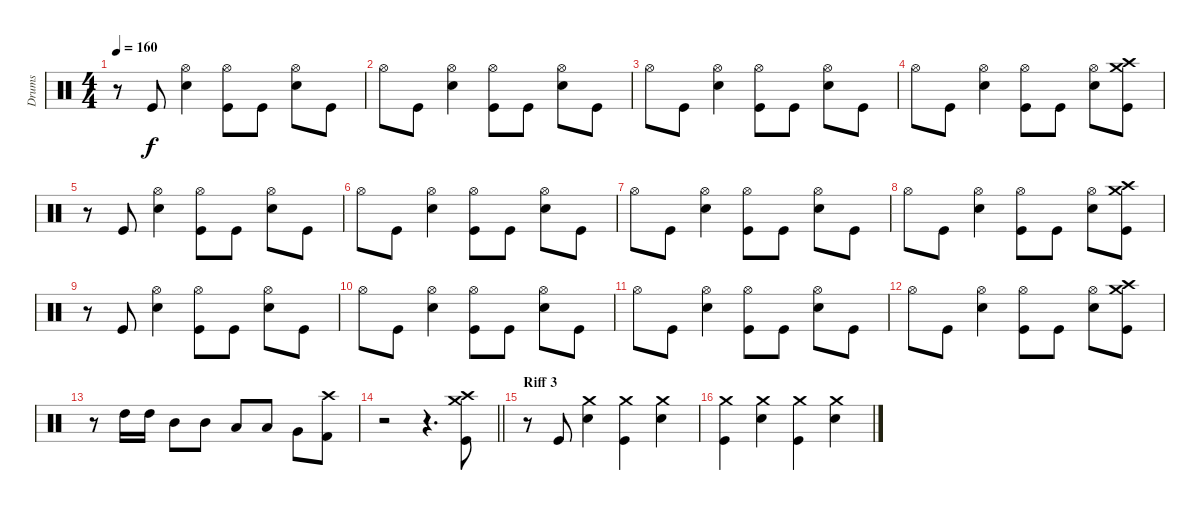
\track ("Drums" "Drums") {instrument percussion}
\staff {score}
\articulation defaults
\ts (4 4)
\tempo 160
\clef neutral
\ks c
r.8{dy f} "Kick (hit)".8 ("Hi-Hat (open)" "Electric Snare (hit)").4 ("Kick (hit)" "Hi-Hat (open)").8 "Kick (hit)".8 ("Hi-Hat (open)" "Electric Snare (hit)").8 "Kick (hit)".8 |
"Hi-Hat (open)".8 "Kick (hit)".8 ("Hi-Hat (open)" "Electric Snare (hit)").4 ("Kick (hit)" "Hi-Hat (open)").8 "Kick (hit)".8 ("Hi-Hat (open)" "Electric Snare (hit)").8 "Kick (hit)".8 |
"Hi-Hat (open)".8 "Kick (hit)".8 ("Hi-Hat (open)" "Electric Snare (hit)").4 ("Kick (hit)" "Hi-Hat (open)").8 "Kick (hit)".8 ("Hi-Hat (open)" "Electric Snare (hit)").8 "Kick (hit)".8 |
"Hi-Hat (open)".8 "Kick (hit)".8 ("Hi-Hat (open)" "Electric Snare (hit)").4 ("Kick (hit)" "Hi-Hat (open)").8 "Kick (hit)".8 ("Hi-Hat (open)" "Electric Snare (hit)").8 ("Kick (hit)" "Crash medium (hit)" "Crash high (hit)").8 |
r.8 "Kick (hit)".8 ("Hi-Hat (open)" "Electric Snare (hit)").4 ("Kick (hit)" "Hi-Hat (open)").8 "Kick (hit)".8 ("Hi-Hat (open)" "Electric Snare (hit)").8 "Kick (hit)".8 |
"Hi-Hat (open)".8 "Kick (hit)".8 ("Hi-Hat (open)" "Electric Snare (hit)").4 ("Kick (hit)" "Hi-Hat (open)").8 "Kick (hit)".8 ("Hi-Hat (open)" "Electric Snare (hit)").8 "Kick (hit)".8 |
"Hi-Hat (open)".8 "Kick (hit)".8 ("Hi-Hat (open)" "Electric Snare (hit)").4 ("Kick (hit)" "Hi-Hat (open)").8 "Kick (hit)".8 ("Hi-Hat (open)" "Electric Snare (hit)").8 "Kick (hit)".8 |
"Hi-Hat (open)".8 "Kick (hit)".8 ("Hi-Hat (open)" "Electric Snare (hit)").4 ("Kick (hit)" "Hi-Hat (open)").8 "Kick (hit)".8 ("Hi-Hat (open)" "Electric Snare (hit)").8 ("Kick (hit)" "Crash medium (hit)" "Crash high (hit)").8 |
r.8 "Kick (hit)".8 ("Hi-Hat (open)" "Electric Snare (hit)").4 ("Kick (hit)" "Hi-Hat (open)").8 "Kick (hit)".8 ("Hi-Hat (open)" "Electric Snare (hit)").8 "Kick (hit)".8 |
"Hi-Hat (open)".8 "Kick (hit)".8 ("Hi-Hat (open)" "Electric Snare (hit)").4 ("Kick (hit)" "Hi-Hat (open)").8 "Kick (hit)".8 ("Hi-Hat (open)" "Electric Snare (hit)").8 "Kick (hit)".8 |
"Hi-Hat (open)".8 "Kick (hit)".8 ("Hi-Hat (open)" "Electric Snare (hit)").4 ("Kick (hit)" "Hi-Hat (open)").8 "Kick (hit)".8 ("Hi-Hat (open)" "Electric Snare (hit)").8 "Kick (hit)".8 |
"Hi-Hat (open)".8 "Kick (hit)".8 ("Hi-Hat (open)" "Electric Snare (hit)").4 ("Kick (hit)" "Hi-Hat (open)").8 "Kick (hit)".8 ("Hi-Hat (open)" "Electric Snare (hit)").8 ("Kick (hit)" "Crash medium (hit)" "Crash high (hit)").8 |
r.8 "High Tom (hit)".16 "High Tom (hit)".16 "Mid Tom (hit)".8 "Mid Tom (hit)".8 "Low Tom (hit)".8 "Low Tom (hit)".8 "Very Low Tom (hit)".8 ("Crash high (hit)" "Kick (hit) 2").8 |
\barLineRight lightlight
r.2 r.4{d} ("Kick (hit)" "Crash medium (hit)" "Crash high (hit)").8 |
\section ("" "Riff 3")
r.8 "Kick (hit)".8 ("Crash medium (hit)" "Electric Snare (hit)").4 ("Kick (hit)" "Crash medium (hit)").4 ("Crash medium (hit)" "Electric Snare (hit)").4 |
("Kick (hit)" "Crash medium (hit)").4 ("Crash medium (hit)" "Electric Snare (hit)").4 ("Kick (hit)" "Crash medium (hit)").4 ("Crash medium (hit)" "Electric Snare (hit)").4
